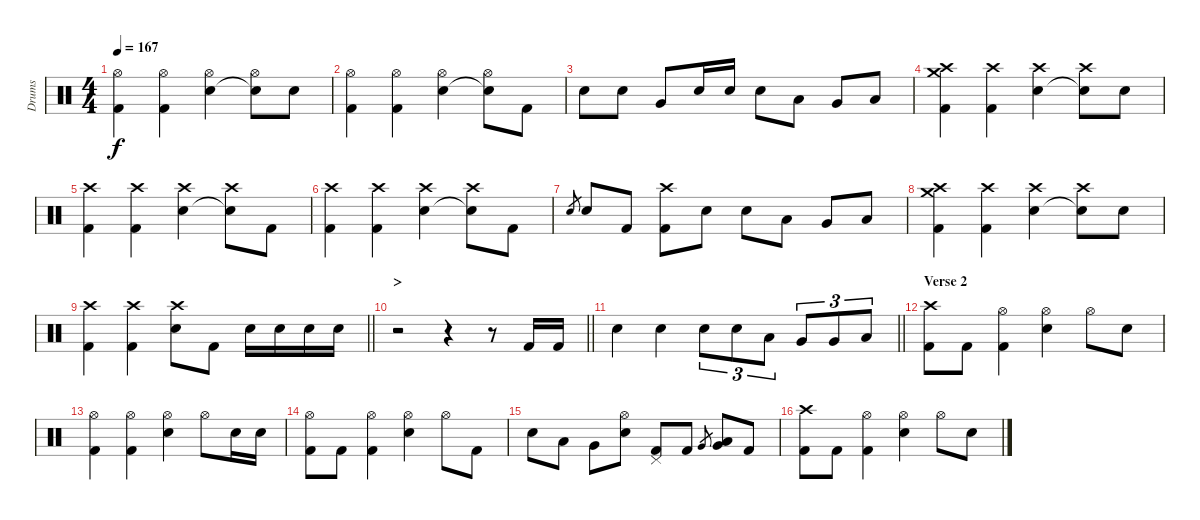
\track ("Drums" "Drums") {instrument percussion}
\staff {score}
\articulation defaults
\ts (4 4)
\tempo 167
\clef neutral
\ks c
("Kick (hit) 2" "Hi-Hat (open)").4{dy f} ("Kick (hit) 2" "Hi-Hat (open)").4 ("Electric Snare (hit)" "Hi-Hat (open)").4 ("Snare (hit)"{t} "Hi-Hat (open)").8 "Electric Snare (hit)".8 |
("Kick (hit) 2" "Hi-Hat (open)").4 ("Kick (hit) 2" "Hi-Hat (open)").4 ("Electric Snare (hit)" "Hi-Hat (open)").4 ("Snare (hit)"{t} "Hi-Hat (open)").8 "Kick (hit) 2".8 |
"Electric Snare (hit)".8 "Electric Snare (hit)".8 "Very Low Tom (hit)".8 "Electric Snare (hit)".16 "Electric Snare (hit)".16 "Electric Snare (hit)".8 "Low Tom (hit)".8 "Very Low Tom (hit)".8 "Low Floor Tom (hit)".8 |
("Kick (hit) 2" "Crash high (hit)" "Crash medium (hit)").4 ("Kick (hit) 2" "Crash high (hit)").4 ("Electric Snare (hit)" "Crash high (hit)").4 ("Snare (hit)"{t} "Crash high (hit)").8 "Electric Snare (hit)".8 |
("Kick (hit) 2" "Crash high (hit)").4 ("Kick (hit) 2" "Crash high (hit)").4 ("Electric Snare (hit)" "Crash high (hit)").4 ("Snare (hit)"{t} "Crash high (hit)").8 "Kick (hit) 2".8 |
("Kick (hit) 2" "Crash high (hit)").4 ("Kick (hit) 2" "Crash high (hit)").4 ("Electric Snare (hit)" "Crash high (hit)").4 ("Snare (hit)"{t} "Crash high (hit)").8 "Kick (hit) 2".8 |
"Electric Snare (hit)".8{gr} "Electric Snare (hit)".8 "Kick (hit) 2".8 ("Kick (hit) 2" "Crash high (hit)").8 "Electric Snare (hit)".8 "Electric Snare (hit)".8 "Low Tom (hit)".8 "Very Low Tom (hit)".8 "Low Floor Tom (hit)".8 |
("Kick (hit) 2" "Crash high (hit)" "Crash medium (hit)").4 ("Kick (hit) 2" "Crash high (hit)").4 ("Electric Snare (hit)" "Crash high (hit)").4 ("Snare (hit)"{t} "Crash high (hit)").8 "Electric Snare (hit)".8 |
\barLineRight lightlight
("Kick (hit) 2" "Crash high (hit)").4 ("Kick (hit) 2" "Crash high (hit)").4 ("Electric Snare (hit)" "Crash high (hit)").8 "Kick (hit) 2".8 "Electric Snare (hit)".16 "Electric Snare (hit)".16 "Electric Snare (hit)".16 "Electric Snare (hit)".16 |
\section ("" ">")
\barLineRight lightlight
r.2 r.4 r.8 "Kick (hit) 2".16 "Kick (hit) 2".16 |
\barLineRight lightlight "Electric Snare (hit)".4 "Electric Snare (hit)".4 "Electric Snare (hit)".8{tu (3 2)} "Electric Snare (hit)".8{tu (3 2)} "Low Tom (hit)".8{tu (3 2)} "Very Low Tom (hit)".8{tu (3 2)} "Very Low Tom (hit)".8{tu (3 2)} "Low Floor Tom (hit)".8{tu (3 2)}
|
\section ("" "Verse 2")
("Kick (hit) 2" "Crash high (hit)").8 "Kick (hit) 2".8 ("Kick (hit) 2" "Hi-Hat (open)").4 ("Electric Snare (hit)" "Hi-Hat (open)").4 "Hi-Hat (open)".8 "Electric Snare (hit)".8 |
("Kick (hit) 2" "Hi-Hat (open)").4 ("Kick (hit) 2" "Hi-Hat (open)").4 ("Electric Snare (hit)" "Hi-Hat (open)").4 "Hi-Hat (open)".8 "Electric Snare (hit)".16 "Electric Snare (hit)".16 |
("Kick (hit) 2" "Hi-Hat (open)").8 "Kick (hit) 2".8 ("Kick (hit) 2" "Hi-Hat (open)").4 ("Electric Snare (hit)" "Hi-Hat (open)").4 "Hi-Hat (open)".8 "Kick (hit) 2".8 |
"Electric Snare (hit)".8 "Low Tom (hit)".8 "Very Low Tom (hit)".8 ("Electric Snare (hit)" "Hi-Hat (open)").8 ("Kick (hit) 2" "Pedal Hi-Hat (hit)").8 "Kick (hit) 2".8 "Very Low Tom (hit)".8{gr} ("Very Low Tom (hit)" "Low Floor Tom (hit)").8 "Kick (hit) 2".8 |
("Kick (hit) 2" "Crash high (hit)").8 "Kick (hit) 2".8 ("Kick (hit) 2" "Hi-Hat (open)").4 ("Electric Snare (hit)" "Hi-Hat (open)").4 "Hi-Hat (open)".8 "Electric Snare (hit)".8
